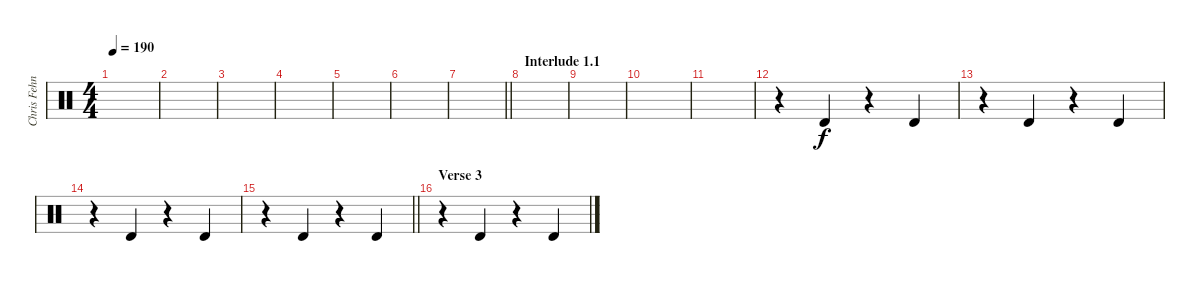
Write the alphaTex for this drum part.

\track ("Chris Fehn" "Chris Fehn") {instrument percussion}
\staff {score}
\articulation defaults
\ts (4 4)
\tempo 190
\clef neutral
\ks c
|
|
|
|
|
|
\barLineRight lightlight
|
\section ("" "Interlude 1.1")
|
|
|
|
r.4 "Timbale high (hit)".4 r.4 "Timbale high (hit)".4 |
r.4 "Timbale high (hit)".4 r.4 "Timbale high (hit)".4 |
r.4 "Timbale high (hit)".4 r.4 "Timbale high (hit)".4 |
\barLineRight lightlight
r.4 "Timbale high (hit)".4 r.4 "Timbale high (hit)".4 |
\section ("" "Verse 3")
r.4 "Timbale high (hit)".4 r.4 "Timbale high (hit)".4
